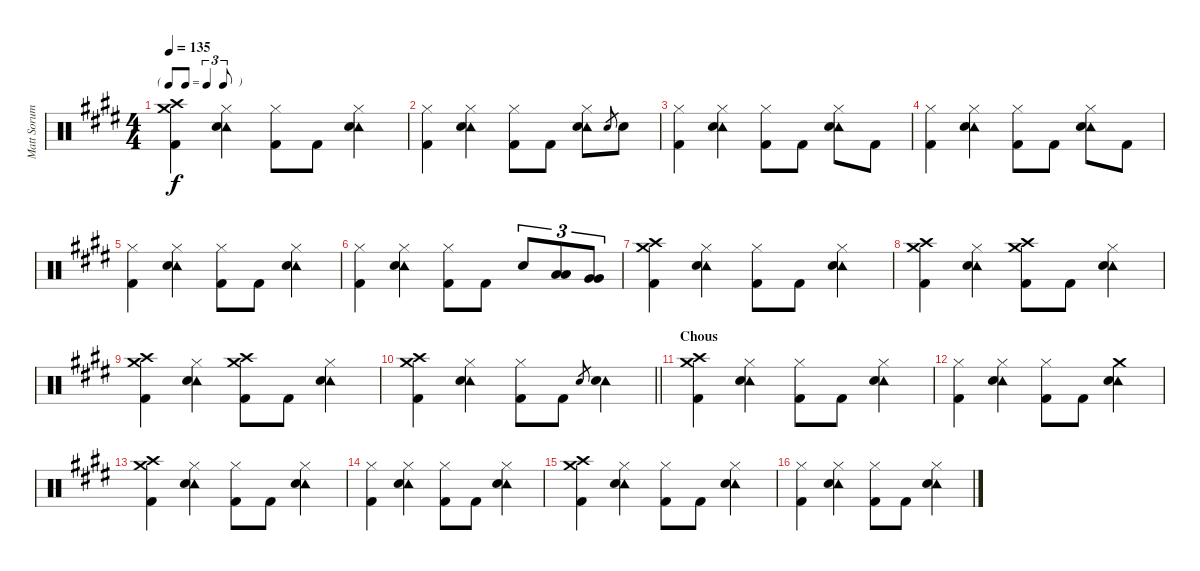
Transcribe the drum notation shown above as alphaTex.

\track ("Matt Sorum - Drums" "Matt Sorum") {instrument percussion}
\staff {score}
\articulation defaults
\ts (4 4)
\tf triplet8th
\tempo 135
\clef neutral
\ks e
("Crash medium (hit)" "Crash high (hit)" "Kick (hit) 2").4{dy f} ("Hi-Hat (closed)" "Tambourine (hit)" "Snare (hit) 2").4 ("Hi-Hat (closed)" "Kick (hit) 2").8 "Kick (hit) 2".8 ("Hi-Hat (closed)" "Tambourine (hit)" "Snare (hit) 2").4 |
("Hi-Hat (closed)" "Kick (hit) 2").4 ("Hi-Hat (closed)" "Tambourine (hit)" "Snare (hit) 2").4 ("Hi-Hat (closed)" "Kick (hit) 2").8 "Kick (hit) 2".8 ("Hi-Hat (closed)" "Tambourine (hit)" "Snare (hit) 2").8 "Snare (hit) 2".8{gr} "Snare (hit) 2".8 |
("Hi-Hat (closed)" "Kick (hit) 2").4 ("Hi-Hat (closed)" "Tambourine (hit)" "Snare (hit) 2").4 ("Hi-Hat (closed)" "Kick (hit) 2").8 "Kick (hit) 2".8 ("Hi-Hat (closed)" "Tambourine (hit)" "Snare (hit) 2").8 "Kick (hit) 2".8 |
("Hi-Hat (closed)" "Kick (hit) 2").4 ("Hi-Hat (closed)" "Tambourine (hit)" "Snare (hit) 2").4 ("Hi-Hat (closed)" "Kick (hit) 2").8 "Kick (hit) 2".8 ("Hi-Hat (closed)" "Tambourine (hit)" "Snare (hit) 2").8 "Kick (hit) 2".8 |
("Hi-Hat (closed)" "Kick (hit) 2").4 ("Hi-Hat (closed)" "Tambourine (hit)" "Snare (hit) 2").4 ("Hi-Hat (closed)" "Kick (hit) 2").8 "Kick (hit) 2".8 ("Hi-Hat (closed)" "Tambourine (hit)" "Snare (hit) 2").4 |
("Hi-Hat (closed)" "Kick (hit) 2").4 ("Hi-Hat (closed)" "Tambourine (hit)" "Snare (hit) 2").4 ("Hi-Hat (closed)" "Kick (hit) 2").8 "Kick (hit) 2".8 "Snare (hit) 2".8{tu (3 2)} ("Low Tom (hit)" "Low Tom (hit)").8{tu (3 2)} ("Very Low Tom (hit)" "Very Low Tom (hit)").8{tu (3 2)} |
("Crash medium (hit)" "Crash high (hit)" "Kick (hit) 2").4 ("Hi-Hat (closed)" "Tambourine (hit)" "Snare (hit) 2").4 ("Hi-Hat (closed)" "Kick (hit) 2").8 "Kick (hit) 2".8 ("Hi-Hat (closed)" "Tambourine (hit)" "Snare (hit) 2").4 |
("Crash medium (hit)" "Crash high (hit)" "Kick (hit) 2").4 ("Hi-Hat (closed)" "Tambourine (hit)" "Snare (hit) 2").4 ("Crash high (hit)" "Crash medium (hit)" "Kick (hit) 2").8 "Kick (hit) 2".8 ("Hi-Hat (closed)" "Tambourine (hit)" "Snare (hit) 2").4 |
("Crash medium (hit)" "Crash high (hit)" "Kick (hit) 2").4 ("Hi-Hat (closed)" "Tambourine (hit)" "Snare (hit) 2").4 ("Crash high (hit)" "Crash medium (hit)" "Kick (hit) 2").8 "Kick (hit) 2".8 ("Hi-Hat (closed)" "Tambourine (hit)" "Snare (hit) 2").4 |
\barLineRight lightlight
("Crash medium (hit)" "Crash high (hit)" "Kick (hit) 2").4 ("Hi-Hat (closed)" "Tambourine (hit)" "Snare (hit) 2").4 ("Hi-Hat (closed)" "Kick (hit) 2").8 "Kick (hit) 2".8 "Snare (hit) 2".8{gr} ("Tambourine (hit)" "Snare (hit) 2").4 |
\section ("" "Chous")
("Crash medium (hit)" "Crash high (hit)" "Kick (hit) 2").4 ("Hi-Hat (closed)" "Tambourine (hit)" "Snare (hit) 2").4 ("Hi-Hat (closed)" "Kick (hit) 2").8 "Kick (hit) 2".8 ("Hi-Hat (closed)" "Tambourine (hit)" "Snare (hit) 2").4 |
("Hi-Hat (closed)" "Kick (hit) 2").4 ("Hi-Hat (closed)" "Tambourine (hit)" "Snare (hit) 2").4 ("Hi-Hat (closed)" "Kick (hit) 2").8 "Kick (hit) 2".8 ("Crash medium (hit)" "Tambourine (hit)" "Snare (hit) 2").4 |
("Crash medium (hit)" "Crash high (hit)" "Kick (hit) 2").4 ("Hi-Hat (closed)" "Tambourine (hit)" "Snare (hit) 2").4 ("Hi-Hat (closed)" "Kick (hit) 2").8 "Kick (hit) 2".8 ("Hi-Hat (closed)" "Tambourine (hit)" "Snare (hit) 2").4 |
("Hi-Hat (closed)" "Kick (hit) 2").4 ("Hi-Hat (closed)" "Tambourine (hit)" "Snare (hit) 2").4 ("Hi-Hat (closed)" "Kick (hit) 2").8 "Kick (hit) 2".8 ("Hi-Hat (closed)" "Tambourine (hit)" "Snare (hit) 2").4 |
("Crash medium (hit)" "Crash high (hit)" "Kick (hit) 2").4 ("Hi-Hat (closed)" "Tambourine (hit)" "Snare (hit) 2").4 ("Hi-Hat (closed)" "Kick (hit) 2").8 "Kick (hit) 2".8 ("Hi-Hat (closed)" "Tambourine (hit)" "Snare (hit) 2").4 |
("Hi-Hat (closed)" "Kick (hit) 2").4 ("Hi-Hat (closed)" "Tambourine (hit)" "Snare (hit) 2").4 ("Hi-Hat (closed)" "Kick (hit) 2").8 "Kick (hit) 2".8 ("Hi-Hat (closed)" "Tambourine (hit)" "Snare (hit) 2").4
